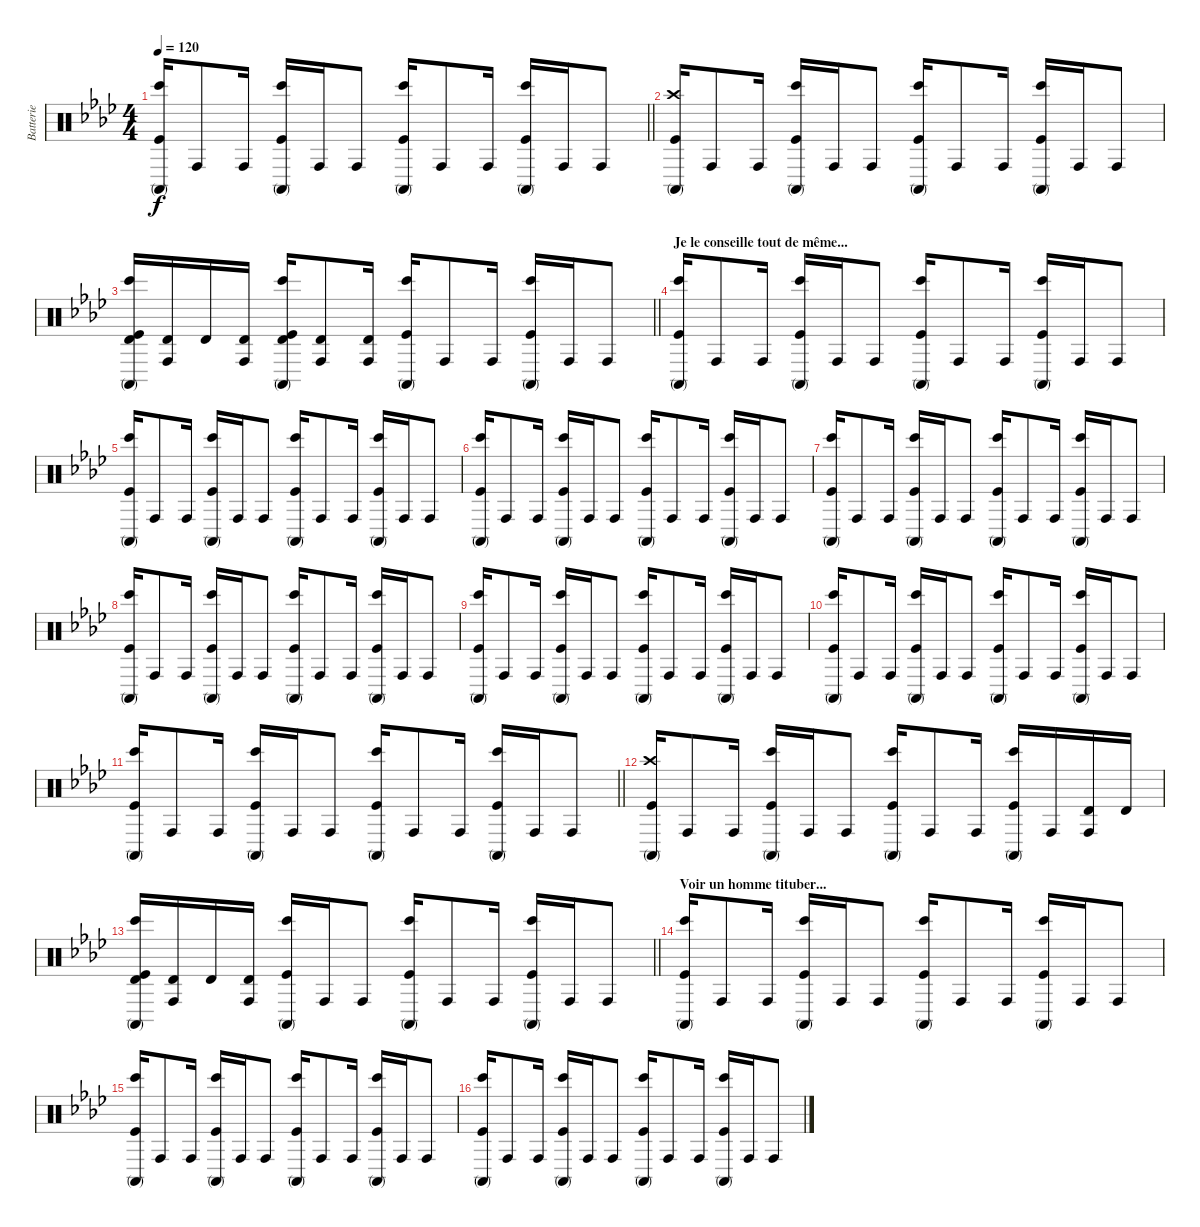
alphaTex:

\track ("Batterie" "Batterie") {instrument percussion}
\staff {score}
\articulation defaults
\ts (4 4)
\tempo 120
\clef neutral
\barLineRight lightlight
\ks fminor
("Bongo High (hit)" "Conga high (mute)" "Kick (hit)").16{dy f} "Conga high (hit)".8 "Conga high (hit)".16 ("Bongo High (hit)" "Conga high (mute)" "Kick (hit)").16 "Conga high (hit)".16 "Conga high (hit)".8 ("Bongo High (hit)" "Conga high (mute)" "Kick (hit)").16 "Conga high (hit)".8 "Conga high (hit)".16 ("Bongo High (hit)" "Conga high (mute)" "Kick (hit)").16 "Conga high (hit)".16 "Conga high (hit)".8 |
("Crash high (hit)" "Conga high (mute)" "Kick (hit)").16 "Conga high (hit)".8 "Conga high (hit)".16 ("Bongo High (hit)" "Conga high (mute)" "Kick (hit)").16 "Conga high (hit)".16 "Conga high (hit)".8 ("Bongo High (hit)" "Conga high (mute)" "Kick (hit)").16 "Conga high (hit)".8 "Conga high (hit)".16 ("Bongo High (hit)" "Conga high (mute)" "Kick (hit)").16 "Conga high (hit)".16 "Conga high (hit)".8 |
\barLineRight lightlight
("Bongo High (hit)" "Conga high (mute)" "Timbale high (hit)" "Kick (hit)").16 ("Conga high (hit)" "Timbale high (hit)").16 "Timbale high (hit)".16 ("Conga high (hit)" "Timbale high (hit)").16 ("Bongo High (hit)" "Conga high (mute)" "Timbale high (hit)" "Kick (hit)").16 ("Conga high (hit)" "Timbale high (hit)").8 ("Conga high (hit)" "Timbale high (hit)").16 ("Bongo High (hit)" "Conga high (mute)" "Kick (hit)").16 "Conga high (hit)".8 "Conga high (hit)".16 ("Bongo High (hit)" "Conga high (mute)" "Kick (hit)").16 "Conga high (hit)".16 "Conga high (hit)".8 |
\section ("" "Je le conseille tout de même...")
("Bongo High (hit)" "Conga high (mute)" "Kick (hit)").16 "Conga high (hit)".8 "Conga high (hit)".16 ("Bongo High (hit)" "Conga high (mute)" "Kick (hit)").16 "Conga high (hit)".16 "Conga high (hit)".8 ("Bongo High (hit)" "Conga high (mute)" "Kick (hit)").16 "Conga high (hit)".8 "Conga high (hit)".16 ("Bongo High (hit)" "Conga high (mute)" "Kick (hit)").16 "Conga high (hit)".16 "Conga high (hit)".8 |
("Bongo High (hit)" "Conga high (mute)" "Kick (hit)").16 "Conga high (hit)".8 "Conga high (hit)".16 ("Bongo High (hit)" "Conga high (mute)" "Kick (hit)").16 "Conga high (hit)".16 "Conga high (hit)".8 ("Bongo High (hit)" "Conga high (mute)" "Kick (hit)").16 "Conga high (hit)".8 "Conga high (hit)".16 ("Bongo High (hit)" "Conga high (mute)" "Kick (hit)").16 "Conga high (hit)".16 "Conga high (hit)".8 |
("Bongo High (hit)" "Conga high (mute)" "Kick (hit)").16 "Conga high (hit)".8 "Conga high (hit)".16 ("Bongo High (hit)" "Conga high (mute)" "Kick (hit)").16 "Conga high (hit)".16 "Conga high (hit)".8 ("Bongo High (hit)" "Conga high (mute)" "Kick (hit)").16 "Conga high (hit)".8 "Conga high (hit)".16 ("Bongo High (hit)" "Conga high (mute)" "Kick (hit)").16 "Conga high (hit)".16 "Conga high (hit)".8 |
("Bongo High (hit)" "Conga high (mute)" "Kick (hit)").16 "Conga high (hit)".8 "Conga high (hit)".16 ("Bongo High (hit)" "Conga high (mute)" "Kick (hit)").16 "Conga high (hit)".16 "Conga high (hit)".8 ("Bongo High (hit)" "Conga high (mute)" "Kick (hit)").16 "Conga high (hit)".8 "Conga high (hit)".16 ("Bongo High (hit)" "Conga high (mute)" "Kick (hit)").16 "Conga high (hit)".16 "Conga high (hit)".8 |
("Bongo High (hit)" "Conga high (mute)" "Kick (hit)").16 "Conga high (hit)".8 "Conga high (hit)".16 ("Bongo High (hit)" "Conga high (mute)" "Kick (hit)").16 "Conga high (hit)".16 "Conga high (hit)".8 ("Bongo High (hit)" "Conga high (mute)" "Kick (hit)").16 "Conga high (hit)".8 "Conga high (hit)".16 ("Bongo High (hit)" "Conga high (mute)" "Kick (hit)").16 "Conga high (hit)".16 "Conga high (hit)".8 |
("Bongo High (hit)" "Conga high (mute)" "Kick (hit)").16 "Conga high (hit)".8 "Conga high (hit)".16 ("Bongo High (hit)" "Conga high (mute)" "Kick (hit)").16 "Conga high (hit)".16 "Conga high (hit)".8 ("Bongo High (hit)" "Conga high (mute)" "Kick (hit)").16 "Conga high (hit)".8 "Conga high (hit)".16 ("Bongo High (hit)" "Conga high (mute)" "Kick (hit)").16 "Conga high (hit)".16 "Conga high (hit)".8 |
("Bongo High (hit)" "Conga high (mute)" "Kick (hit)").16 "Conga high (hit)".8 "Conga high (hit)".16 ("Bongo High (hit)" "Conga high (mute)" "Kick (hit)").16 "Conga high (hit)".16 "Conga high (hit)".8 ("Bongo High (hit)" "Conga high (mute)" "Kick (hit)").16 "Conga high (hit)".8 "Conga high (hit)".16 ("Bongo High (hit)" "Conga high (mute)" "Kick (hit)").16 "Conga high (hit)".16 "Conga high (hit)".8 |
\barLineRight lightlight
("Bongo High (hit)" "Conga high (mute)" "Kick (hit)").16 "Conga high (hit)".8 "Conga high (hit)".16 ("Bongo High (hit)" "Conga high (mute)" "Kick (hit)").16 "Conga high (hit)".16 "Conga high (hit)".8 ("Bongo High (hit)" "Conga high (mute)" "Kick (hit)").16 "Conga high (hit)".8 "Conga high (hit)".16 ("Bongo High (hit)" "Conga high (mute)" "Kick (hit)").16 "Conga high (hit)".16 "Conga high (hit)".8 |
("Crash high (hit)" "Conga high (mute)" "Kick (hit)").16 "Conga high (hit)".8 "Conga high (hit)".16 ("Bongo High (hit)" "Conga high (mute)" "Kick (hit)").16 "Conga high (hit)".16 "Conga high (hit)".8 ("Bongo High (hit)" "Conga high (mute)" "Kick (hit)").16 "Conga high (hit)".8 "Conga high (hit)".16 ("Bongo High (hit)" "Conga high (mute)" "Kick (hit)").16 "Conga high (hit)".16 ("Conga high (hit)" "Timbale high (hit)").16 "Timbale high (hit)".16 |
\barLineRight lightlight
("Bongo High (hit)" "Conga high (mute)" "Timbale high (hit)" "Kick (hit)").16 ("Conga high (hit)" "Timbale high (hit)").16 "Timbale high (hit)".16 ("Conga high (hit)" "Timbale high (hit)").16 ("Bongo High (hit)" "Conga high (mute)" "Kick (hit)").16 "Conga high (hit)".16 "Conga high (hit)".8 ("Bongo High (hit)" "Conga high (mute)" "Kick (hit)").16 "Conga high (hit)".8 "Conga high (hit)".16 ("Bongo High (hit)" "Conga high (mute)" "Kick (hit)").16 "Conga high (hit)".16 "Conga high (hit)".8 |
\section ("" "Voir un homme tituber...")
("Bongo High (hit)" "Conga high (mute)" "Kick (hit)").16 "Conga high (hit)".8 "Conga high (hit)".16 ("Bongo High (hit)" "Conga high (mute)" "Kick (hit)").16 "Conga high (hit)".16 "Conga high (hit)".8 ("Bongo High (hit)" "Conga high (mute)" "Kick (hit)").16 "Conga high (hit)".8 "Conga high (hit)".16 ("Bongo High (hit)" "Conga high (mute)" "Kick (hit)").16 "Conga high (hit)".16 "Conga high (hit)".8 |
("Bongo High (hit)" "Conga high (mute)" "Kick (hit)").16 "Conga high (hit)".8 "Conga high (hit)".16 ("Bongo High (hit)" "Conga high (mute)" "Kick (hit)").16 "Conga high (hit)".16 "Conga high (hit)".8 ("Bongo High (hit)" "Conga high (mute)" "Kick (hit)").16 "Conga high (hit)".8 "Conga high (hit)".16 ("Bongo High (hit)" "Conga high (mute)" "Kick (hit)").16 "Conga high (hit)".16 "Conga high (hit)".8 |
("Bongo High (hit)" "Conga high (mute)" "Kick (hit)").16 "Conga high (hit)".8 "Conga high (hit)".16 ("Bongo High (hit)" "Conga high (mute)" "Kick (hit)").16 "Conga high (hit)".16 "Conga high (hit)".8 ("Bongo High (hit)" "Conga high (mute)" "Kick (hit)").16 "Conga high (hit)".8 "Conga high (hit)".16 ("Bongo High (hit)" "Conga high (mute)" "Kick (hit)").16 "Conga high (hit)".16 "Conga high (hit)".8
